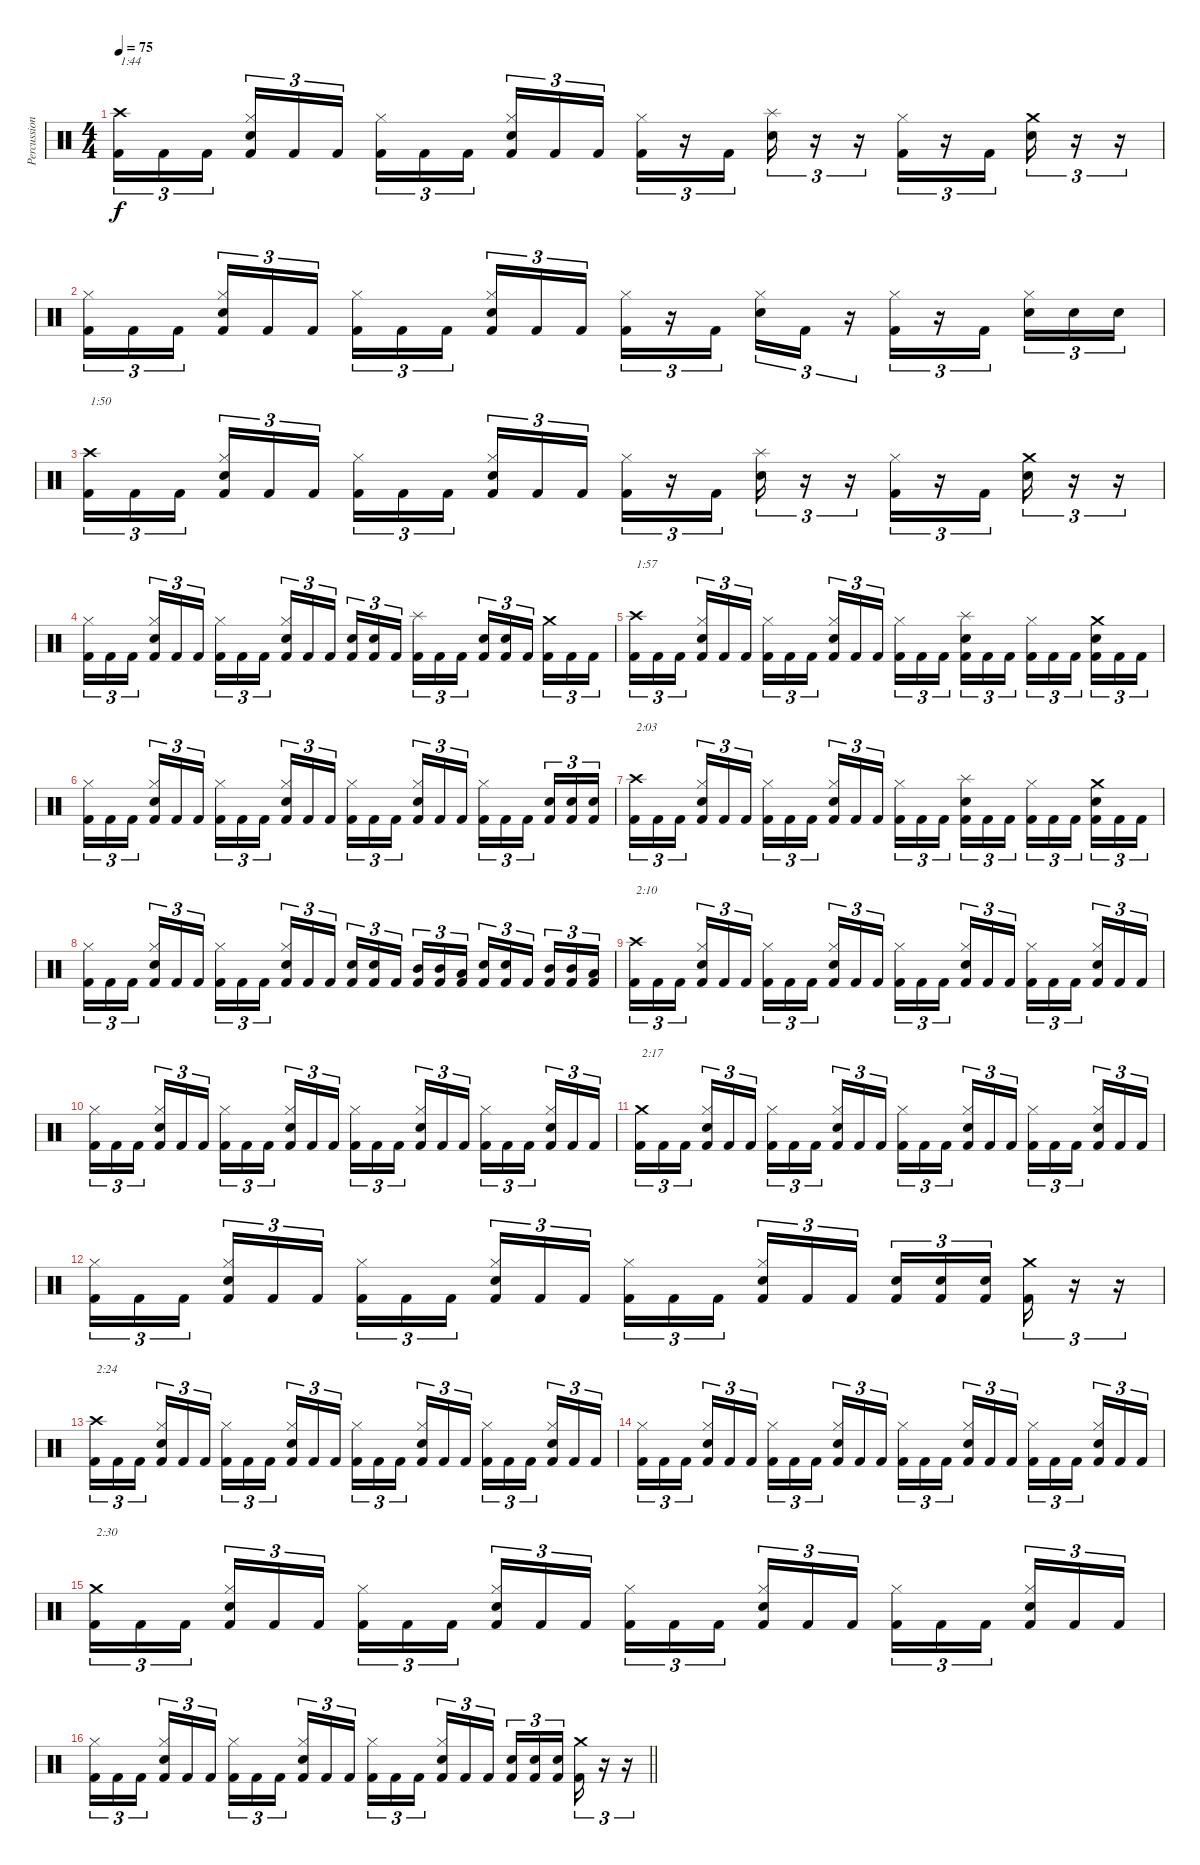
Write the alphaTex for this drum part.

\track ("Percussion" "Percussion") {instrument percussion}
\staff {score}
\articulation defaults
\ts (4 4)
\tempo 75
\clef neutral
\ks c
("Crash high (hit)" "Kick (hit) 2").16{tu (3 2) txt "1:44" dy f} "Kick (hit) 2".16{tu (3 2)} "Kick (hit) 2".16{tu (3 2)} ("Hi-Hat (closed)" "Snare (hit) 2" "Kick (hit) 2").16{tu (3 2)} "Kick (hit) 2".16{tu (3 2)} "Kick (hit) 2".16{tu (3 2)} ("Hi-Hat (closed)" "Kick (hit) 2").16{tu (3 2)} "Kick (hit) 2".16{tu (3 2)} "Kick (hit) 2".16{tu (3 2)} ("Hi-Hat (closed)" "Snare (hit) 2" "Kick (hit) 2").16{tu (3 2)} "Kick (hit) 2".16{tu (3 2)} "Kick (hit) 2".16{tu (3 2)} ("Hi-Hat (closed)" "Kick (hit) 2").16{tu (3 2)} r.16{tu (3 2)} "Kick (hit) 2".16{tu (3 2)} ("Splash (hit)" "Snare (hit) 2").16{tu (3 2)} r.16{tu (3 2)} r.16{tu (3 2)} ("Hi-Hat (closed)" "Kick (hit) 2").16{tu (3 2)} r.16{tu (3 2)} "Kick (hit) 2".16{tu (3 2)} ("Crash medium (hit)" "Snare (hit) 2").16{tu (3 2)} r.16{tu (3 2)} r.16{tu (3 2)} |
("Hi-Hat (closed)" "Kick (hit) 2").16{tu (3 2)} "Kick (hit) 2".16{tu (3 2)} "Kick (hit) 2".16{tu (3 2)} ("Hi-Hat (closed)" "Snare (hit) 2" "Kick (hit) 2").16{tu (3 2)} "Kick (hit) 2".16{tu (3 2)} "Kick (hit) 2".16{tu (3 2)} ("Hi-Hat (closed)" "Kick (hit) 2").16{tu (3 2)} "Kick (hit) 2".16{tu (3 2)} "Kick (hit) 2".16{tu (3 2)} ("Hi-Hat (closed)" "Snare (hit) 2" "Kick (hit) 2").16{tu (3 2)} "Kick (hit) 2".16{tu (3 2)} "Kick (hit) 2".16{tu (3 2)} ("Hi-Hat (closed)" "Kick (hit) 2").16{tu (3 2)} r.16{tu (3 2)} "Kick (hit) 2".16{tu (3 2)} ("Hi-Hat (closed)" "Snare (hit) 2").16{tu (3 2)} "Kick (hit) 2".16{tu (3 2)} r.16{tu (3 2)} ("Hi-Hat (closed)" "Kick (hit) 2").16{tu (3 2)} r.16{tu (3 2)} "Kick (hit) 2".16{tu (3 2)} ("Hi-Hat (closed)" "Snare (hit) 2").16{tu (3 2)} "Snare (hit) 2".16{tu (3 2)} "Snare (hit) 2".16{tu (3 2)} |
("Crash high (hit)" "Kick (hit) 2").16{tu (3 2) txt "1:50"} "Kick (hit) 2".16{tu (3 2)} "Kick (hit) 2".16{tu (3 2)} ("Hi-Hat (closed)" "Snare (hit) 2" "Kick (hit) 2").16{tu (3 2)} "Kick (hit) 2".16{tu (3 2)} "Kick (hit) 2".16{tu (3 2)} ("Hi-Hat (closed)" "Kick (hit) 2").16{tu (3 2)} "Kick (hit) 2".16{tu (3 2)} "Kick (hit) 2".16{tu (3 2)} ("Hi-Hat (closed)" "Snare (hit) 2" "Kick (hit) 2").16{tu (3 2)} "Kick (hit) 2".16{tu (3 2)} "Kick (hit) 2".16{tu (3 2)} ("Hi-Hat (closed)" "Kick (hit) 2").16{tu (3 2)} r.16{tu (3 2)} "Kick (hit) 2".16{tu (3 2)} ("Splash (hit)" "Snare (hit) 2").16{tu (3 2)} r.16{tu (3 2)} r.16{tu (3 2)} ("Hi-Hat (closed)" "Kick (hit) 2").16{tu (3 2)} r.16{tu (3 2)} "Kick (hit) 2".16{tu (3 2)} ("Crash medium (hit)" "Snare (hit) 2").16{tu (3 2)} r.16{tu (3 2)} r.16{tu (3 2)} |
("Hi-Hat (closed)" "Kick (hit) 2").16{tu (3 2)} "Kick (hit) 2".16{tu (3 2)} "Kick (hit) 2".16{tu (3 2)} ("Hi-Hat (closed)" "Snare (hit) 2" "Kick (hit) 2").16{tu (3 2)} "Kick (hit) 2".16{tu (3 2)} "Kick (hit) 2".16{tu (3 2)} ("Hi-Hat (closed)" "Kick (hit) 2").16{tu (3 2)} "Kick (hit) 2".16{tu (3 2)} "Kick (hit) 2".16{tu (3 2)} ("Hi-Hat (closed)" "Snare (hit) 2" "Kick (hit) 2").16{tu (3 2)} "Kick (hit) 2".16{tu (3 2)} "Kick (hit) 2".16{tu (3 2)} ("Snare (hit) 2" "Kick (hit) 2").16{tu (3 2)} ("Snare (hit) 2" "Kick (hit) 2").16{tu (3 2)} "Kick (hit) 2".16{tu (3 2)} ("Splash (hit)" "Kick (hit) 2").16{tu (3 2)} "Kick (hit) 2".16{tu (3 2)} "Kick (hit) 2".16{tu (3 2)} ("Snare (hit) 2" "Kick (hit) 2").16{tu (3 2)} ("Snare (hit) 2" "Kick (hit) 2").16{tu (3 2)} "Kick (hit) 2".16{tu (3 2)} ("Crash medium (hit)" "Kick (hit) 2").16{tu (3 2)} "Kick (hit) 2".16{tu (3 2)} "Kick (hit) 2".16{tu (3 2)} |
("Crash high (hit)" "Kick (hit) 2").16{tu (3 2) txt "1:57"} "Kick (hit) 2".16{tu (3 2)} "Kick (hit) 2".16{tu (3 2)} ("Hi-Hat (closed)" "Snare (hit) 2" "Kick (hit) 2").16{tu (3 2)} "Kick (hit) 2".16{tu (3 2)} "Kick (hit) 2".16{tu (3 2)} ("Hi-Hat (closed)" "Kick (hit) 2").16{tu (3 2)} "Kick (hit) 2".16{tu (3 2)} "Kick (hit) 2".16{tu (3 2)} ("Hi-Hat (closed)" "Snare (hit) 2" "Kick (hit) 2").16{tu (3 2)} "Kick (hit) 2".16{tu (3 2)} "Kick (hit) 2".16{tu (3 2)} ("Hi-Hat (closed)" "Kick (hit) 2").16{tu (3 2)} "Kick (hit) 2".16{tu (3 2)} "Kick (hit) 2".16{tu (3 2)} ("Splash (hit)" "Snare (hit) 2" "Kick (hit) 2").16{tu (3 2)} "Kick (hit) 2".16{tu (3 2)} "Kick (hit) 2".16{tu (3 2)} ("Hi-Hat (closed)" "Kick (hit) 2").16{tu (3 2)} "Kick (hit) 2".16{tu (3 2)} "Kick (hit) 2".16{tu (3 2)} ("Crash medium (hit)" "Snare (hit) 2" "Kick (hit) 2").16{tu (3 2)} "Kick (hit) 2".16{tu (3 2)} "Kick (hit) 2".16{tu (3 2)} |
("Hi-Hat (closed)" "Kick (hit) 2").16{tu (3 2)} "Kick (hit) 2".16{tu (3 2)} "Kick (hit) 2".16{tu (3 2)} ("Hi-Hat (closed)" "Snare (hit) 2" "Kick (hit) 2").16{tu (3 2)} "Kick (hit) 2".16{tu (3 2)} "Kick (hit) 2".16{tu (3 2)} ("Hi-Hat (closed)" "Kick (hit) 2").16{tu (3 2)} "Kick (hit) 2".16{tu (3 2)} "Kick (hit) 2".16{tu (3 2)} ("Hi-Hat (closed)" "Snare (hit) 2" "Kick (hit) 2").16{tu (3 2)} "Kick (hit) 2".16{tu (3 2)} "Kick (hit) 2".16{tu (3 2)} ("Hi-Hat (closed)" "Kick (hit) 2").16{tu (3 2)} "Kick (hit) 2".16{tu (3 2)} "Kick (hit) 2".16{tu (3 2)} ("Hi-Hat (closed)" "Snare (hit) 2" "Kick (hit) 2").16{tu (3 2)} "Kick (hit) 2".16{tu (3 2)} "Kick (hit) 2".16{tu (3 2)} ("Hi-Hat (closed)" "Kick (hit) 2").16{tu (3 2)} "Kick (hit) 2".16{tu (3 2)} "Kick (hit) 2".16{tu (3 2)} ("Snare (hit) 2" "Kick (hit) 2").16{tu (3 2)} ("Snare (hit) 2" "Kick (hit) 2").16{tu (3 2)} ("Snare (hit) 2" "Kick (hit) 2").16{tu (3 2)} |
("Crash high (hit)" "Kick (hit) 2").16{tu (3 2) txt "2:03"} "Kick (hit) 2".16{tu (3 2)} "Kick (hit) 2".16{tu (3 2)} ("Hi-Hat (closed)" "Snare (hit) 2" "Kick (hit) 2").16{tu (3 2)} "Kick (hit) 2".16{tu (3 2)} "Kick (hit) 2".16{tu (3 2)} ("Hi-Hat (closed)" "Kick (hit) 2").16{tu (3 2)} "Kick (hit) 2".16{tu (3 2)} "Kick (hit) 2".16{tu (3 2)} ("Hi-Hat (closed)" "Snare (hit) 2" "Kick (hit) 2").16{tu (3 2)} "Kick (hit) 2".16{tu (3 2)} "Kick (hit) 2".16{tu (3 2)} ("Hi-Hat (closed)" "Kick (hit) 2").16{tu (3 2)} "Kick (hit) 2".16{tu (3 2)} "Kick (hit) 2".16{tu (3 2)} ("Splash (hit)" "Snare (hit) 2" "Kick (hit) 2").16{tu (3 2)} "Kick (hit) 2".16{tu (3 2)} "Kick (hit) 2".16{tu (3 2)} ("Hi-Hat (closed)" "Kick (hit) 2").16{tu (3 2)} "Kick (hit) 2".16{tu (3 2)} "Kick (hit) 2".16{tu (3 2)} ("Crash medium (hit)" "Snare (hit) 2" "Kick (hit) 2").16{tu (3 2)} "Kick (hit) 2".16{tu (3 2)} "Kick (hit) 2".16{tu (3 2)} |
("Hi-Hat (closed)" "Kick (hit) 2").16{tu (3 2)} "Kick (hit) 2".16{tu (3 2)} "Kick (hit) 2".16{tu (3 2)} ("Hi-Hat (closed)" "Snare (hit) 2" "Kick (hit) 2").16{tu (3 2)} "Kick (hit) 2".16{tu (3 2)} "Kick (hit) 2".16{tu (3 2)} ("Hi-Hat (closed)" "Kick (hit) 2").16{tu (3 2)} "Kick (hit) 2".16{tu (3 2)} "Kick (hit) 2".16{tu (3 2)} ("Hi-Hat (closed)" "Snare (hit) 2" "Kick (hit) 2").16{tu (3 2)} "Kick (hit) 2".16{tu (3 2)} "Kick (hit) 2".16{tu (3 2)} ("Snare (hit) 2" "Kick (hit) 2").16{tu (3 2)} ("Snare (hit) 2" "Kick (hit) 2").16{tu (3 2)} "Kick (hit) 2".16{tu (3 2)} ("Mid Tom (hit)" "Kick (hit) 2").16{tu (3 2)} ("Mid Tom (hit)" "Kick (hit) 2").16{tu (3 2)} ("Low Tom (hit)" "Kick (hit) 2").16{tu (3 2)} ("Snare (hit) 2" "Kick (hit) 2").16{tu (3 2)} ("Snare (hit) 2" "Kick (hit) 2").16{tu (3 2)} "Kick (hit) 2".16{tu (3 2)} ("Mid Tom (hit)" "Kick (hit) 2").16{tu (3 2)} ("Mid Tom (hit)" "Kick (hit) 2").16{tu (3 2)} ("Low Tom (hit)" "Kick (hit) 2").16{tu (3 2)} |
("Crash high (hit)" "Kick (hit) 2").16{tu (3 2) txt "2:10"} "Kick (hit) 2".16{tu (3 2)} "Kick (hit) 2".16{tu (3 2)} ("Hi-Hat (closed)" "Snare (hit) 2" "Kick (hit) 2").16{tu (3 2)} "Kick (hit) 2".16{tu (3 2)} "Kick (hit) 2".16{tu (3 2)} ("Hi-Hat (closed)" "Kick (hit) 2").16{tu (3 2)} "Kick (hit) 2".16{tu (3 2)} "Kick (hit) 2".16{tu (3 2)} ("Hi-Hat (closed)" "Snare (hit) 2" "Kick (hit) 2").16{tu (3 2)} "Kick (hit) 2".16{tu (3 2)} "Kick (hit) 2".16{tu (3 2)} ("Hi-Hat (closed)" "Kick (hit) 2").16{tu (3 2)} "Kick (hit) 2".16{tu (3 2)} "Kick (hit) 2".16{tu (3 2)} ("Hi-Hat (closed)" "Snare (hit) 2" "Kick (hit) 2").16{tu (3 2)} "Kick (hit) 2".16{tu (3 2)} "Kick (hit) 2".16{tu (3 2)} ("Hi-Hat (closed)" "Kick (hit) 2").16{tu (3 2)} "Kick (hit) 2".16{tu (3 2)} "Kick (hit) 2".16{tu (3 2)} ("Hi-Hat (closed)" "Snare (hit) 2" "Kick (hit) 2").16{tu (3 2)} "Kick (hit) 2".16{tu (3 2)} "Kick (hit) 2".16{tu (3 2)} |
("Hi-Hat (closed)" "Kick (hit) 2").16{tu (3 2)} "Kick (hit) 2".16{tu (3 2)} "Kick (hit) 2".16{tu (3 2)} ("Hi-Hat (closed)" "Snare (hit) 2" "Kick (hit) 2").16{tu (3 2)} "Kick (hit) 2".16{tu (3 2)} "Kick (hit) 2".16{tu (3 2)} ("Hi-Hat (closed)" "Kick (hit) 2").16{tu (3 2)} "Kick (hit) 2".16{tu (3 2)} "Kick (hit) 2".16{tu (3 2)} ("Hi-Hat (closed)" "Snare (hit) 2" "Kick (hit) 2").16{tu (3 2)} "Kick (hit) 2".16{tu (3 2)} "Kick (hit) 2".16{tu (3 2)} ("Hi-Hat (closed)" "Kick (hit) 2").16{tu (3 2)} "Kick (hit) 2".16{tu (3 2)} "Kick (hit) 2".16{tu (3 2)} ("Hi-Hat (closed)" "Snare (hit) 2" "Kick (hit) 2").16{tu (3 2)} "Kick (hit) 2".16{tu (3 2)} "Kick (hit) 2".16{tu (3 2)} ("Hi-Hat (closed)" "Kick (hit) 2").16{tu (3 2)} "Kick (hit) 2".16{tu (3 2)} "Kick (hit) 2".16{tu (3 2)} ("Hi-Hat (closed)" "Snare (hit) 2" "Kick (hit) 2").16{tu (3 2)} "Kick (hit) 2".16{tu (3 2)} "Kick (hit) 2".16{tu (3 2)} |
("Crash medium (hit)" "Kick (hit) 2").16{tu (3 2) txt "2:17"} "Kick (hit) 2".16{tu (3 2)} "Kick (hit) 2".16{tu (3 2)} ("Hi-Hat (closed)" "Snare (hit) 2" "Kick (hit) 2").16{tu (3 2)} "Kick (hit) 2".16{tu (3 2)} "Kick (hit) 2".16{tu (3 2)} ("Hi-Hat (closed)" "Kick (hit) 2").16{tu (3 2)} "Kick (hit) 2".16{tu (3 2)} "Kick (hit) 2".16{tu (3 2)} ("Hi-Hat (closed)" "Snare (hit) 2" "Kick (hit) 2").16{tu (3 2)} "Kick (hit) 2".16{tu (3 2)} "Kick (hit) 2".16{tu (3 2)} ("Hi-Hat (closed)" "Kick (hit) 2").16{tu (3 2)} "Kick (hit) 2".16{tu (3 2)} "Kick (hit) 2".16{tu (3 2)} ("Hi-Hat (closed)" "Snare (hit) 2" "Kick (hit) 2").16{tu (3 2)} "Kick (hit) 2".16{tu (3 2)} "Kick (hit) 2".16{tu (3 2)} ("Hi-Hat (closed)" "Kick (hit) 2").16{tu (3 2)} "Kick (hit) 2".16{tu (3 2)} "Kick (hit) 2".16{tu (3 2)} ("Hi-Hat (closed)" "Snare (hit) 2" "Kick (hit) 2").16{tu (3 2)} "Kick (hit) 2".16{tu (3 2)} "Kick (hit) 2".16{tu (3 2)} |
("Hi-Hat (closed)" "Kick (hit) 2").16{tu (3 2)} "Kick (hit) 2".16{tu (3 2)} "Kick (hit) 2".16{tu (3 2)} ("Hi-Hat (closed)" "Snare (hit) 2" "Kick (hit) 2").16{tu (3 2)} "Kick (hit) 2".16{tu (3 2)} "Kick (hit) 2".16{tu (3 2)} ("Hi-Hat (closed)" "Kick (hit) 2").16{tu (3 2)} "Kick (hit) 2".16{tu (3 2)} "Kick (hit) 2".16{tu (3 2)} ("Hi-Hat (closed)" "Snare (hit) 2" "Kick (hit) 2").16{tu (3 2)} "Kick (hit) 2".16{tu (3 2)} "Kick (hit) 2".16{tu (3 2)} ("Hi-Hat (closed)" "Kick (hit) 2").16{tu (3 2)} "Kick (hit) 2".16{tu (3 2)} "Kick (hit) 2".16{tu (3 2)} ("Hi-Hat (closed)" "Snare (hit) 2" "Kick (hit) 2").16{tu (3 2)} "Kick (hit) 2".16{tu (3 2)} "Kick (hit) 2".16{tu (3 2)} ("Snare (hit) 2" "Kick (hit) 2").16{tu (3 2)} ("Snare (hit) 2" "Kick (hit) 2").16{tu (3 2)} ("Snare (hit) 2" "Kick (hit) 2").16{tu (3 2)} ("Crash medium (hit)" "Kick (hit) 2").16{tu (3 2)} r.16{tu (3 2)} r.16{tu (3 2)} |
("Crash high (hit)" "Kick (hit) 2").16{tu (3 2) txt "2:24"} "Kick (hit) 2".16{tu (3 2)} "Kick (hit) 2".16{tu (3 2)} ("Hi-Hat (closed)" "Snare (hit) 2" "Kick (hit) 2").16{tu (3 2)} "Kick (hit) 2".16{tu (3 2)} "Kick (hit) 2".16{tu (3 2)} ("Hi-Hat (closed)" "Kick (hit) 2").16{tu (3 2)} "Kick (hit) 2".16{tu (3 2)} "Kick (hit) 2".16{tu (3 2)} ("Hi-Hat (closed)" "Snare (hit) 2" "Kick (hit) 2").16{tu (3 2)} "Kick (hit) 2".16{tu (3 2)} "Kick (hit) 2".16{tu (3 2)} ("Hi-Hat (closed)" "Kick (hit) 2").16{tu (3 2)} "Kick (hit) 2".16{tu (3 2)} "Kick (hit) 2".16{tu (3 2)} ("Hi-Hat (closed)" "Snare (hit) 2" "Kick (hit) 2").16{tu (3 2)} "Kick (hit) 2".16{tu (3 2)} "Kick (hit) 2".16{tu (3 2)} ("Hi-Hat (closed)" "Kick (hit) 2").16{tu (3 2)} "Kick (hit) 2".16{tu (3 2)} "Kick (hit) 2".16{tu (3 2)} ("Hi-Hat (closed)" "Snare (hit) 2" "Kick (hit) 2").16{tu (3 2)} "Kick (hit) 2".16{tu (3 2)} "Kick (hit) 2".16{tu (3 2)} |
("Hi-Hat (closed)" "Kick (hit) 2").16{tu (3 2)} "Kick (hit) 2".16{tu (3 2)} "Kick (hit) 2".16{tu (3 2)} ("Hi-Hat (closed)" "Snare (hit) 2" "Kick (hit) 2").16{tu (3 2)} "Kick (hit) 2".16{tu (3 2)} "Kick (hit) 2".16{tu (3 2)} ("Hi-Hat (closed)" "Kick (hit) 2").16{tu (3 2)} "Kick (hit) 2".16{tu (3 2)} "Kick (hit) 2".16{tu (3 2)} ("Hi-Hat (closed)" "Snare (hit) 2" "Kick (hit) 2").16{tu (3 2)} "Kick (hit) 2".16{tu (3 2)} "Kick (hit) 2".16{tu (3 2)} ("Hi-Hat (closed)" "Kick (hit) 2").16{tu (3 2)} "Kick (hit) 2".16{tu (3 2)} "Kick (hit) 2".16{tu (3 2)} ("Hi-Hat (closed)" "Snare (hit) 2" "Kick (hit) 2").16{tu (3 2)} "Kick (hit) 2".16{tu (3 2)} "Kick (hit) 2".16{tu (3 2)} ("Hi-Hat (closed)" "Kick (hit) 2").16{tu (3 2)} "Kick (hit) 2".16{tu (3 2)} "Kick (hit) 2".16{tu (3 2)} ("Hi-Hat (closed)" "Snare (hit) 2" "Kick (hit) 2").16{tu (3 2)} "Kick (hit) 2".16{tu (3 2)} "Kick (hit) 2".16{tu (3 2)} |
("Crash medium (hit)" "Kick (hit) 2").16{tu (3 2) txt "2:30"} "Kick (hit) 2".16{tu (3 2)} "Kick (hit) 2".16{tu (3 2)} ("Hi-Hat (closed)" "Snare (hit) 2" "Kick (hit) 2").16{tu (3 2)} "Kick (hit) 2".16{tu (3 2)} "Kick (hit) 2".16{tu (3 2)} ("Hi-Hat (closed)" "Kick (hit) 2").16{tu (3 2)} "Kick (hit) 2".16{tu (3 2)} "Kick (hit) 2".16{tu (3 2)} ("Hi-Hat (closed)" "Snare (hit) 2" "Kick (hit) 2").16{tu (3 2)} "Kick (hit) 2".16{tu (3 2)} "Kick (hit) 2".16{tu (3 2)} ("Hi-Hat (closed)" "Kick (hit) 2").16{tu (3 2)} "Kick (hit) 2".16{tu (3 2)} "Kick (hit) 2".16{tu (3 2)} ("Hi-Hat (closed)" "Snare (hit) 2" "Kick (hit) 2").16{tu (3 2)} "Kick (hit) 2".16{tu (3 2)} "Kick (hit) 2".16{tu (3 2)} ("Hi-Hat (closed)" "Kick (hit) 2").16{tu (3 2)} "Kick (hit) 2".16{tu (3 2)} "Kick (hit) 2".16{tu (3 2)} ("Hi-Hat (closed)" "Snare (hit) 2" "Kick (hit) 2").16{tu (3 2)} "Kick (hit) 2".16{tu (3 2)} "Kick (hit) 2".16{tu (3 2)} |
\barLineRight lightlight
("Hi-Hat (closed)" "Kick (hit) 2").16{tu (3 2)} "Kick (hit) 2".16{tu (3 2)} "Kick (hit) 2".16{tu (3 2)} ("Hi-Hat (closed)" "Snare (hit) 2" "Kick (hit) 2").16{tu (3 2)} "Kick (hit) 2".16{tu (3 2)} "Kick (hit) 2".16{tu (3 2)} ("Hi-Hat (closed)" "Kick (hit) 2").16{tu (3 2)} "Kick (hit) 2".16{tu (3 2)} "Kick (hit) 2".16{tu (3 2)} ("Hi-Hat (closed)" "Snare (hit) 2" "Kick (hit) 2").16{tu (3 2)} "Kick (hit) 2".16{tu (3 2)} "Kick (hit) 2".16{tu (3 2)} ("Hi-Hat (closed)" "Kick (hit) 2").16{tu (3 2)} "Kick (hit) 2".16{tu (3 2)} "Kick (hit) 2".16{tu (3 2)} ("Hi-Hat (closed)" "Snare (hit) 2" "Kick (hit) 2").16{tu (3 2)} "Kick (hit) 2".16{tu (3 2)} "Kick (hit) 2".16{tu (3 2)} ("Snare (hit) 2" "Kick (hit) 2").16{tu (3 2)} ("Snare (hit) 2" "Kick (hit) 2").16{tu (3 2)} ("Snare (hit) 2" "Kick (hit) 2").16{tu (3 2)} ("Crash medium (hit)" "Kick (hit) 2").16{tu (3 2)} r.16{tu (3 2)} r.16{tu (3 2)}
